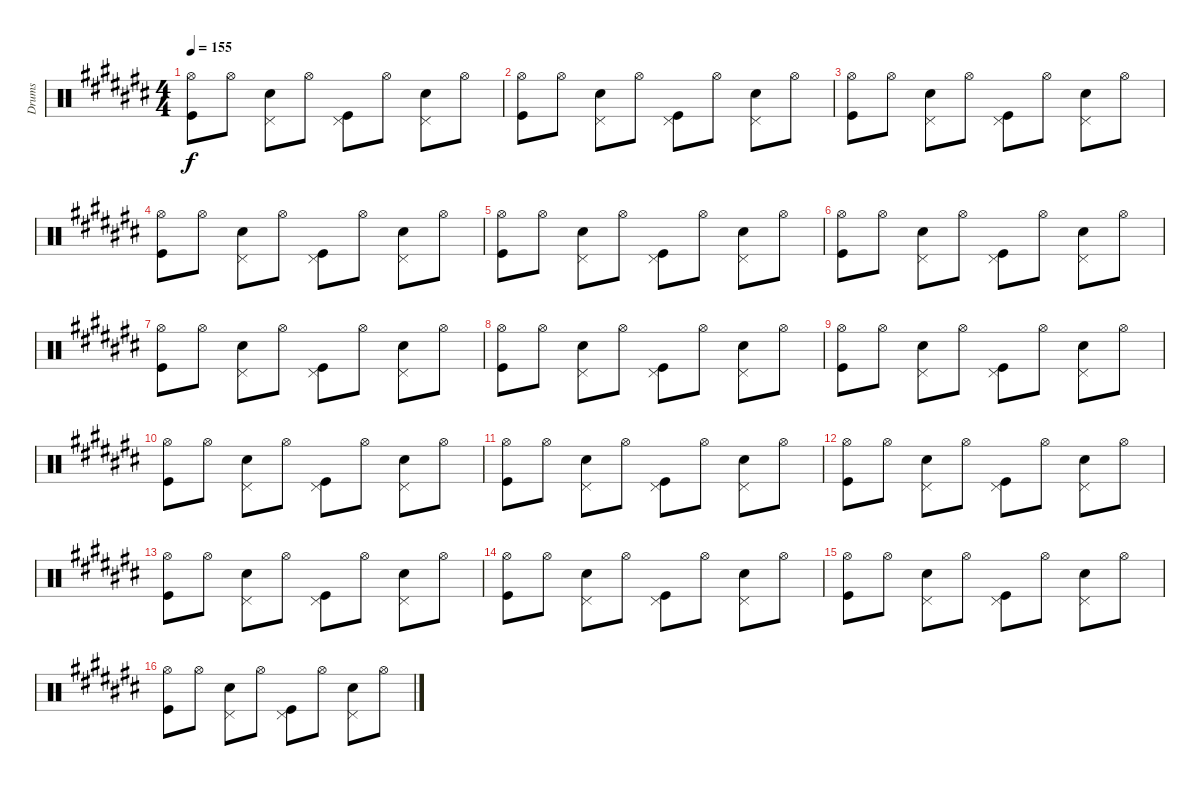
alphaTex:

\track ("Drums" "Drums") {instrument percussion}
\staff {score}
\articulation defaults
\ts (4 4)
\tempo 155
\clef neutral
\ks c#
("Hi-Hat (open)" "Kick (hit)").8{dy f} "Hi-Hat (open)".8 ("Pedal Hi-Hat (hit)" "Snare (hit) 2").8 "Hi-Hat (open)".8 ("Pedal Hi-Hat (hit)" "Kick (hit)").8 "Hi-Hat (open)".8 ("Pedal Hi-Hat (hit)" "Snare (hit) 2").8 "Hi-Hat (open)".8 |
("Hi-Hat (open)" "Kick (hit)").8 "Hi-Hat (open)".8 ("Pedal Hi-Hat (hit)" "Snare (hit) 2").8 "Hi-Hat (open)".8 ("Pedal Hi-Hat (hit)" "Kick (hit)").8 "Hi-Hat (open)".8 ("Pedal Hi-Hat (hit)" "Snare (hit) 2").8 "Hi-Hat (open)".8 |
("Hi-Hat (open)" "Kick (hit)").8 "Hi-Hat (open)".8 ("Pedal Hi-Hat (hit)" "Snare (hit) 2").8 "Hi-Hat (open)".8 ("Pedal Hi-Hat (hit)" "Kick (hit)").8 "Hi-Hat (open)".8 ("Pedal Hi-Hat (hit)" "Snare (hit) 2").8 "Hi-Hat (open)".8 |
("Hi-Hat (open)" "Kick (hit)").8 "Hi-Hat (open)".8 ("Pedal Hi-Hat (hit)" "Snare (hit) 2").8 "Hi-Hat (open)".8 ("Pedal Hi-Hat (hit)" "Kick (hit)").8 "Hi-Hat (open)".8 ("Pedal Hi-Hat (hit)" "Snare (hit) 2").8 "Hi-Hat (open)".8 |
("Hi-Hat (open)" "Kick (hit)").8 "Hi-Hat (open)".8 ("Pedal Hi-Hat (hit)" "Snare (hit) 2").8 "Hi-Hat (open)".8 ("Pedal Hi-Hat (hit)" "Kick (hit)").8 "Hi-Hat (open)".8 ("Pedal Hi-Hat (hit)" "Snare (hit) 2").8 "Hi-Hat (open)".8 |
("Hi-Hat (open)" "Kick (hit)").8 "Hi-Hat (open)".8 ("Pedal Hi-Hat (hit)" "Snare (hit) 2").8 "Hi-Hat (open)".8 ("Pedal Hi-Hat (hit)" "Kick (hit)").8 "Hi-Hat (open)".8 ("Pedal Hi-Hat (hit)" "Snare (hit) 2").8 "Hi-Hat (open)".8 |
("Hi-Hat (open)" "Kick (hit)").8 "Hi-Hat (open)".8 ("Pedal Hi-Hat (hit)" "Snare (hit) 2").8 "Hi-Hat (open)".8 ("Pedal Hi-Hat (hit)" "Kick (hit)").8 "Hi-Hat (open)".8 ("Pedal Hi-Hat (hit)" "Snare (hit) 2").8 "Hi-Hat (open)".8 |
("Hi-Hat (open)" "Kick (hit)").8 "Hi-Hat (open)".8 ("Pedal Hi-Hat (hit)" "Snare (hit) 2").8 "Hi-Hat (open)".8 ("Pedal Hi-Hat (hit)" "Kick (hit)").8 "Hi-Hat (open)".8 ("Pedal Hi-Hat (hit)" "Snare (hit) 2").8 "Hi-Hat (open)".8 |
("Hi-Hat (open)" "Kick (hit)").8 "Hi-Hat (open)".8 ("Pedal Hi-Hat (hit)" "Snare (hit) 2").8 "Hi-Hat (open)".8 ("Pedal Hi-Hat (hit)" "Kick (hit)").8 "Hi-Hat (open)".8 ("Pedal Hi-Hat (hit)" "Snare (hit) 2").8 "Hi-Hat (open)".8 |
("Hi-Hat (open)" "Kick (hit)").8 "Hi-Hat (open)".8 ("Pedal Hi-Hat (hit)" "Snare (hit) 2").8 "Hi-Hat (open)".8 ("Pedal Hi-Hat (hit)" "Kick (hit)").8 "Hi-Hat (open)".8 ("Pedal Hi-Hat (hit)" "Snare (hit) 2").8 "Hi-Hat (open)".8 |
("Hi-Hat (open)" "Kick (hit)").8 "Hi-Hat (open)".8 ("Pedal Hi-Hat (hit)" "Snare (hit) 2").8 "Hi-Hat (open)".8 ("Pedal Hi-Hat (hit)" "Kick (hit)").8 "Hi-Hat (open)".8 ("Pedal Hi-Hat (hit)" "Snare (hit) 2").8 "Hi-Hat (open)".8 |
("Hi-Hat (open)" "Kick (hit)").8 "Hi-Hat (open)".8 ("Pedal Hi-Hat (hit)" "Snare (hit) 2").8 "Hi-Hat (open)".8 ("Pedal Hi-Hat (hit)" "Kick (hit)").8 "Hi-Hat (open)".8 ("Pedal Hi-Hat (hit)" "Snare (hit) 2").8 "Hi-Hat (open)".8 |
("Hi-Hat (open)" "Kick (hit)").8 "Hi-Hat (open)".8 ("Pedal Hi-Hat (hit)" "Snare (hit) 2").8 "Hi-Hat (open)".8 ("Pedal Hi-Hat (hit)" "Kick (hit)").8 "Hi-Hat (open)".8 ("Pedal Hi-Hat (hit)" "Snare (hit) 2").8 "Hi-Hat (open)".8 |
("Hi-Hat (open)" "Kick (hit)").8 "Hi-Hat (open)".8 ("Pedal Hi-Hat (hit)" "Snare (hit) 2").8 "Hi-Hat (open)".8 ("Pedal Hi-Hat (hit)" "Kick (hit)").8 "Hi-Hat (open)".8 ("Pedal Hi-Hat (hit)" "Snare (hit) 2").8 "Hi-Hat (open)".8 |
("Hi-Hat (open)" "Kick (hit)").8 "Hi-Hat (open)".8 ("Pedal Hi-Hat (hit)" "Snare (hit) 2").8 "Hi-Hat (open)".8 ("Pedal Hi-Hat (hit)" "Kick (hit)").8 "Hi-Hat (open)".8 ("Pedal Hi-Hat (hit)" "Snare (hit) 2").8 "Hi-Hat (open)".8 |
("Hi-Hat (open)" "Kick (hit)").8 "Hi-Hat (open)".8 ("Pedal Hi-Hat (hit)" "Snare (hit) 2").8 "Hi-Hat (open)".8 ("Pedal Hi-Hat (hit)" "Kick (hit)").8 "Hi-Hat (open)".8 ("Pedal Hi-Hat (hit)" "Snare (hit) 2").8 "Hi-Hat (open)".8
